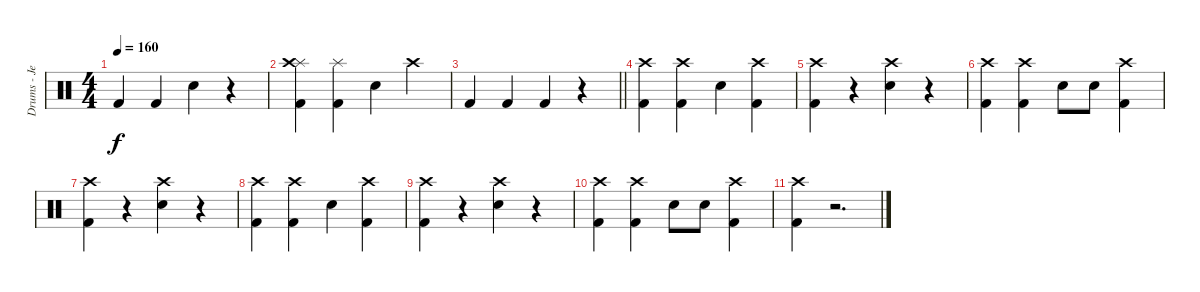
\track ("Drums - Jen Ledger" "Drums - Je") {instrument percussion}
\staff {score}
\articulation defaults
\ts (4 4)
\tempo 160
\clef neutral
\ks c "Kick (hit) 2".4{dy f} "Kick (hit) 2".4 "Snare (hit) 2".4
r.4 |
("Kick (hit) 2" "Splash (hit)" "Crash high (hit)").4 ("Kick (hit) 2" "Splash (hit)").4 "Snare (hit) 2".4 "Crash high (hit)".4 |
\barLineRight lightlight "Kick (hit) 2".4 "Kick (hit) 2".4 "Kick (hit) 2".4
r.4 |
("Kick (hit) 2" "Crash high (hit)").4 ("Kick (hit) 2" "Crash high (hit)").4 "Snare (hit) 2".4 ("Kick (hit) 2" "Crash high (hit)").4 |
("Kick (hit) 2" "Crash high (hit)").4 r.4 ("Crash high (hit)" "Snare (hit) 2").4 r.4 |
("Kick (hit) 2" "Crash high (hit)").4 ("Kick (hit) 2" "Crash high (hit)").4 "Snare (hit) 2".8 "Snare (hit) 2".8 ("Kick (hit) 2" "Crash high (hit)").4 |
("Kick (hit) 2" "Crash high (hit)").4 r.4 ("Crash high (hit)" "Snare (hit) 2").4 r.4 |
("Kick (hit) 2" "Crash high (hit)").4 ("Kick (hit) 2" "Crash high (hit)").4 "Snare (hit) 2".4 ("Kick (hit) 2" "Crash high (hit)").4 |
("Kick (hit) 2" "Crash high (hit)").4 r.4 ("Crash high (hit)" "Snare (hit) 2").4 r.4 |
("Kick (hit) 2" "Crash high (hit)").4 ("Kick (hit) 2" "Crash high (hit)").4 "Snare (hit) 2".8 "Snare (hit) 2".8 ("Kick (hit) 2" "Crash high (hit)").4 |
("Kick (hit) 2" "Crash high (hit)").4 r.2{d}
